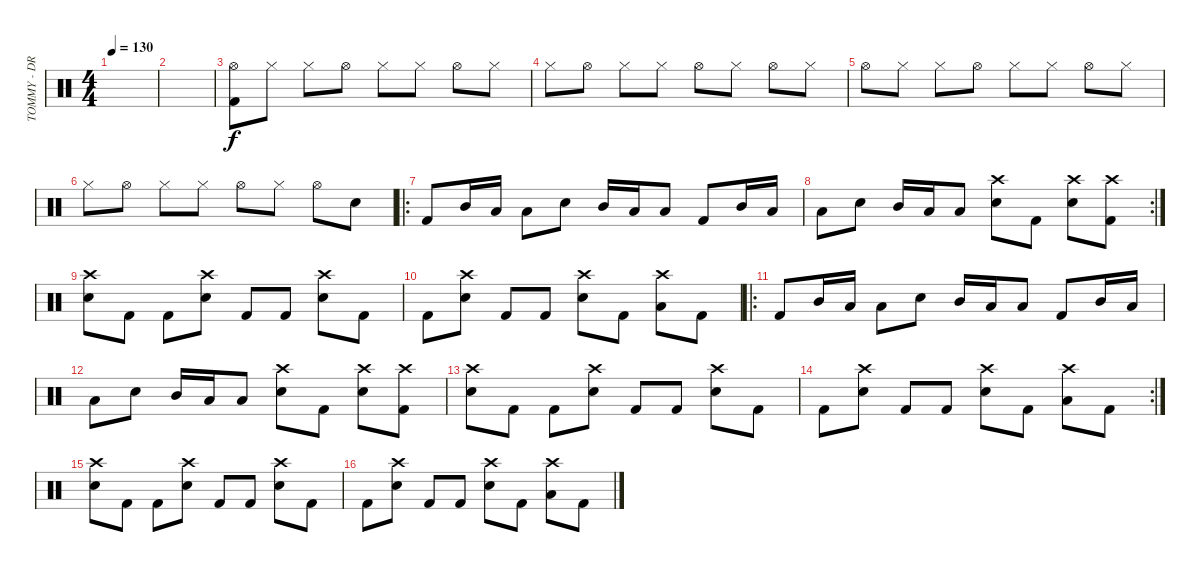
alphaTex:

\track ("TOMMY - DRUMS" "TOMMY - DR") {instrument percussion}
\staff {score}
\articulation defaults
\ts (4 4)
\tempo 130
\clef neutral
\ks c
|
|
("Hi-Hat (open)" "Kick (hit) 2").8 "Hi-Hat (closed)".8 "Hi-Hat (closed)".8 "Hi-Hat (open)".8 "Hi-Hat (closed)".8 "Hi-Hat (closed)".8 "Hi-Hat (open)".8 "Hi-Hat (closed)".8 |
"Hi-Hat (closed)".8 "Hi-Hat (open)".8 "Hi-Hat (closed)".8 "Hi-Hat (closed)".8 "Hi-Hat (open)".8 "Hi-Hat (closed)".8 "Hi-Hat (open)".8 "Hi-Hat (closed)".8 |
"Hi-Hat (open)".8 "Hi-Hat (closed)".8 "Hi-Hat (closed)".8 "Hi-Hat (open)".8 "Hi-Hat (closed)".8 "Hi-Hat (closed)".8 "Hi-Hat (open)".8 "Hi-Hat (closed)".8 |
"Hi-Hat (closed)".8 "Hi-Hat (open)".8 "Hi-Hat (closed)".8 "Hi-Hat (closed)".8 "Hi-Hat (open)".8 "Hi-Hat (closed)".8 "Hi-Hat (open)".8 "Electric Snare (hit)".8 |
\ro "Kick (hit) 2".8 "Mid Tom (hit)".16 "Low Tom (hit)".16 "Low Floor Tom (hit)".8 "Electric Snare (hit)".8 "Mid Tom (hit)".16 "Low Tom (hit)".16 "Low Floor Tom (hit)".8 "Kick (hit) 2".8 "Mid Tom (hit)".16 "Low Tom (hit)".16
|
\rc 2 "Low Floor Tom (hit)".8 "Electric Snare (hit)".8 "Mid Tom (hit)".16 "Low Tom (hit)".16 "Low Floor Tom (hit)".8
("Crash high (hit)" "Electric Snare (hit)").8 "Kick (hit) 2".8 ("Crash high (hit)" "Electric Snare (hit)").8 ("Crash high (hit)" "Kick (hit) 2").8 |
("Crash high (hit)" "Electric Snare (hit)").8 "Kick (hit) 2".8 "Kick (hit) 2".8 ("Crash high (hit)" "Electric Snare (hit)").8 "Kick (hit) 2".8 "Kick (hit) 2".8 ("Crash high (hit)" "Electric Snare (hit)").8 "Kick (hit) 2".8 |
"Kick (hit) 2".8 ("Crash high (hit)" "Electric Snare (hit)").8 "Kick (hit) 2".8 "Kick (hit) 2".8 ("Crash high (hit)" "Electric Snare (hit)").8 "Kick (hit) 2".8 ("Crash high (hit)" "Low Floor Tom (hit)").8 "Kick (hit) 2".8 |
\ro "Kick (hit) 2".8 "Mid Tom (hit)".16 "Low Tom (hit)".16 "Low Floor Tom (hit)".8 "Electric Snare (hit)".8 "Mid Tom (hit)".16 "Low Tom (hit)".16 "Low Floor Tom (hit)".8 "Kick (hit) 2".8 "Mid Tom (hit)".16 "Low Tom (hit)".16
|
"Low Floor Tom (hit)".8 "Electric Snare (hit)".8 "Mid Tom (hit)".16 "Low Tom (hit)".16 "Low Floor Tom (hit)".8 ("Crash high (hit)" "Electric Snare (hit)").8 "Kick (hit) 2".8 ("Crash high (hit)" "Electric Snare (hit)").8 ("Crash high (hit)" "Kick (hit) 2").8 |
("Crash high (hit)" "Electric Snare (hit)").8 "Kick (hit) 2".8 "Kick (hit) 2".8 ("Crash high (hit)" "Electric Snare (hit)").8 "Kick (hit) 2".8 "Kick (hit) 2".8 ("Crash high (hit)" "Electric Snare (hit)").8 "Kick (hit) 2".8 |
\rc 2 "Kick (hit) 2".8
("Crash high (hit)" "Electric Snare (hit)").8 "Kick (hit) 2".8 "Kick (hit) 2".8 ("Crash high (hit)" "Electric Snare (hit)").8 "Kick (hit) 2".8 ("Crash high (hit)" "Low Floor Tom (hit)").8 "Kick (hit) 2".8 |
("Crash high (hit)" "Electric Snare (hit)").8 "Kick (hit) 2".8 "Kick (hit) 2".8 ("Crash high (hit)" "Electric Snare (hit)").8 "Kick (hit) 2".8 "Kick (hit) 2".8 ("Crash high (hit)" "Electric Snare (hit)").8 "Kick (hit) 2".8 |
"Kick (hit) 2".8 ("Crash high (hit)" "Electric Snare (hit)").8 "Kick (hit) 2".8 "Kick (hit) 2".8 ("Crash high (hit)" "Electric Snare (hit)").8 "Kick (hit) 2".8 ("Crash high (hit)" "Low Floor Tom (hit)").8 "Kick (hit) 2".8
